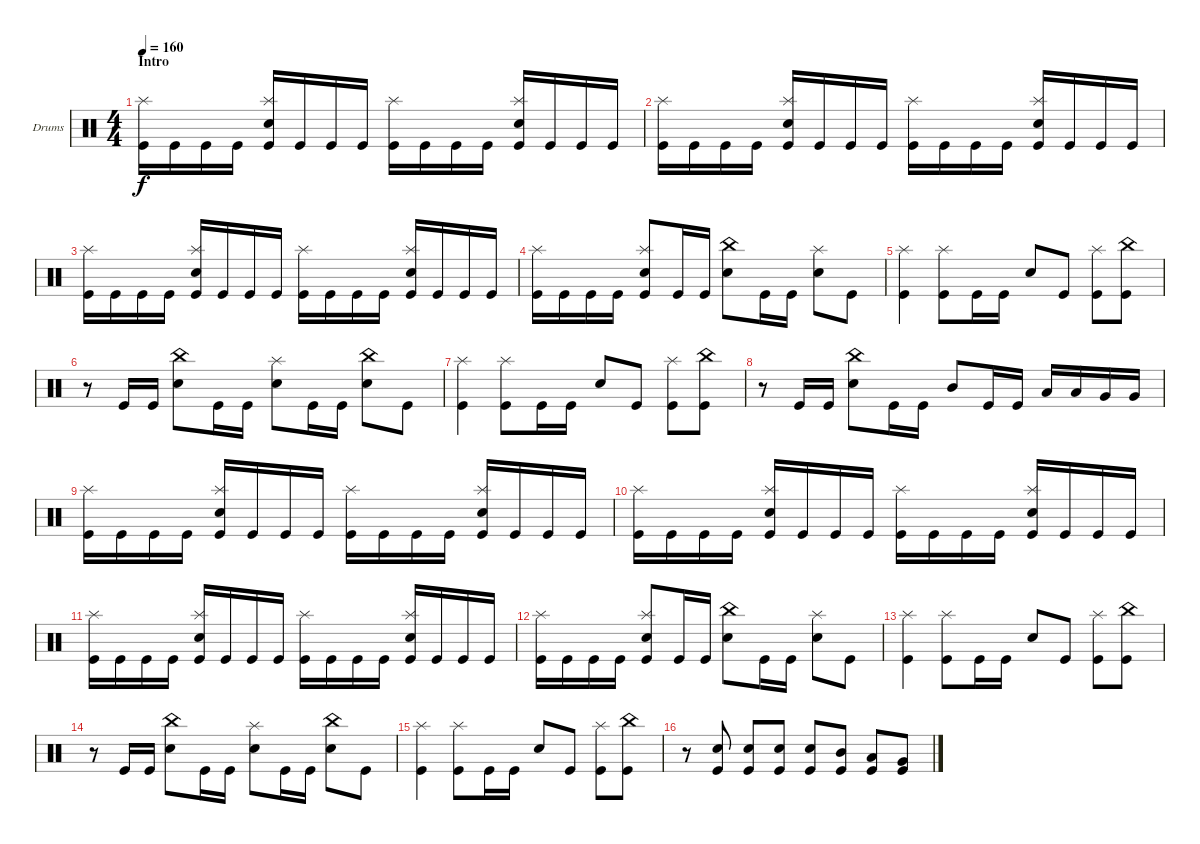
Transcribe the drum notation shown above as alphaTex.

\defaultSystemsLayout 4
\bracketExtendMode groupsimilarinstruments
\firstSystemTrackNameOrientation horizontal
\otherSystemsTrackNameOrientation horizontal
\track ("Drumkit" "Drums") {instrument percussion}
\staff {score}
\articulation defaults
\ts (4 4)
\section ("" "Intro")
\tempo 160
\clef neutral
\ks c
("Kick (hit)" "Splash (hit)").16{dy f} "Kick (hit)".16 "Kick (hit)".16 "Kick (hit)".16 ("Kick (hit)" "Splash (hit)" "Snare (hit) 2").16 "Kick (hit)".16 "Kick (hit)".16 "Kick (hit)".16 ("Kick (hit)" "Splash (hit)").16 "Kick (hit)".16 "Kick (hit)".16 "Kick (hit)".16 ("Kick (hit)" "Splash (hit)" "Snare (hit) 2").16 "Kick (hit)".16 "Kick (hit)".16 "Kick (hit)".16 |
("Kick (hit)" "Splash (hit)").16 "Kick (hit)".16 "Kick (hit)".16 "Kick (hit)".16 ("Kick (hit)" "Splash (hit)" "Snare (hit) 2").16 "Kick (hit)".16 "Kick (hit)".16 "Kick (hit)".16 ("Kick (hit)" "Splash (hit)").16 "Kick (hit)".16 "Kick (hit)".16 "Kick (hit)".16 ("Kick (hit)" "Splash (hit)" "Snare (hit) 2").16 "Kick (hit)".16 "Kick (hit)".16 "Kick (hit)".16 |
("Kick (hit)" "Splash (hit)").16 "Kick (hit)".16 "Kick (hit)".16 "Kick (hit)".16 ("Kick (hit)" "Splash (hit)" "Snare (hit) 2").16 "Kick (hit)".16 "Kick (hit)".16 "Kick (hit)".16 ("Kick (hit)" "Splash (hit)").16 "Kick (hit)".16 "Kick (hit)".16 "Kick (hit)".16 ("Kick (hit)" "Splash (hit)" "Snare (hit) 2").16 "Kick (hit)".16 "Kick (hit)".16 "Kick (hit)".16 |
("Kick (hit)" "Splash (hit)").16 "Kick (hit)".16 "Kick (hit)".16 "Kick (hit)".16 ("Kick (hit)" "Splash (hit)" "Snare (hit) 2").8 "Kick (hit)".16 "Kick (hit)".16 ("Snare (hit) 2" "China (hit)").8 "Kick (hit)".16 "Kick (hit)".16 ("Splash (hit)" "Snare (hit) 2").8 "Kick (hit)".8 |
("Splash (hit)" "Kick (hit)").4 ("Splash (hit)" "Kick (hit)").8 "Kick (hit)".16 "Kick (hit)".16 "Snare (hit) 2".8 "Kick (hit)".8 ("Kick (hit)" "Splash (hit)").8 ("Kick (hit)" "China (hit)").8 |
r.8 "Kick (hit)".16 "Kick (hit)".16 ("Snare (hit) 2" "China (hit)").8 "Kick (hit)".16 "Kick (hit)".16 ("Snare (hit) 2" "Splash (hit)").8 "Kick (hit)".16 "Kick (hit)".16 ("Snare (hit) 2" "China (hit)").8 "Kick (hit)".8 |
("Splash (hit)" "Kick (hit)").4 ("Splash (hit)" "Kick (hit)").8 "Kick (hit)".16 "Kick (hit)".16 "Snare (hit) 2".8 "Kick (hit)".8 ("Kick (hit)" "Splash (hit)").8 ("Kick (hit)" "China (hit)").8 |
r.8 "Kick (hit)".16 "Kick (hit)".16 ("Snare (hit) 2" "China (hit)").8 "Kick (hit)".16 "Kick (hit)".16 "Mid Tom (hit)".8 "Kick (hit)".16 "Kick (hit)".16 "Low Tom (hit)".16 "Low Tom (hit)".16 "Very Low Tom (hit)".16 "Very Low Tom (hit)".16 |
("Kick (hit)" "Splash (hit)").16 "Kick (hit)".16 "Kick (hit)".16 "Kick (hit)".16 ("Kick (hit)" "Splash (hit)" "Snare (hit) 2").16 "Kick (hit)".16 "Kick (hit)".16 "Kick (hit)".16 ("Kick (hit)" "Splash (hit)").16 "Kick (hit)".16 "Kick (hit)".16 "Kick (hit)".16 ("Kick (hit)" "Splash (hit)" "Snare (hit) 2").16 "Kick (hit)".16 "Kick (hit)".16 "Kick (hit)".16 |
("Kick (hit)" "Splash (hit)").16 "Kick (hit)".16 "Kick (hit)".16 "Kick (hit)".16 ("Kick (hit)" "Splash (hit)" "Snare (hit) 2").16 "Kick (hit)".16 "Kick (hit)".16 "Kick (hit)".16 ("Kick (hit)" "Splash (hit)").16 "Kick (hit)".16 "Kick (hit)".16 "Kick (hit)".16 ("Kick (hit)" "Splash (hit)" "Snare (hit) 2").16 "Kick (hit)".16 "Kick (hit)".16 "Kick (hit)".16 |
("Kick (hit)" "Splash (hit)").16 "Kick (hit)".16 "Kick (hit)".16 "Kick (hit)".16 ("Kick (hit)" "Splash (hit)" "Snare (hit) 2").16 "Kick (hit)".16 "Kick (hit)".16 "Kick (hit)".16 ("Kick (hit)" "Splash (hit)").16 "Kick (hit)".16 "Kick (hit)".16 "Kick (hit)".16 ("Kick (hit)" "Splash (hit)" "Snare (hit) 2").16 "Kick (hit)".16 "Kick (hit)".16 "Kick (hit)".16 |
("Kick (hit)" "Splash (hit)").16 "Kick (hit)".16 "Kick (hit)".16 "Kick (hit)".16 ("Kick (hit)" "Splash (hit)" "Snare (hit) 2").8 "Kick (hit)".16 "Kick (hit)".16 ("Snare (hit) 2" "China (hit)").8 "Kick (hit)".16 "Kick (hit)".16 ("Splash (hit)" "Snare (hit) 2").8 "Kick (hit)".8 |
("Splash (hit)" "Kick (hit)").4 ("Splash (hit)" "Kick (hit)").8 "Kick (hit)".16 "Kick (hit)".16 "Snare (hit) 2".8 "Kick (hit)".8 ("Kick (hit)" "Splash (hit)").8 ("Kick (hit)" "China (hit)").8 |
r.8 "Kick (hit)".16 "Kick (hit)".16 ("Snare (hit) 2" "China (hit)").8 "Kick (hit)".16 "Kick (hit)".16 ("Snare (hit) 2" "Splash (hit)").8 "Kick (hit)".16 "Kick (hit)".16 ("Snare (hit) 2" "China (hit)").8 "Kick (hit)".8 |
("Splash (hit)" "Kick (hit)").4 ("Splash (hit)" "Kick (hit)").8 "Kick (hit)".16 "Kick (hit)".16 "Snare (hit) 2".8 "Kick (hit)".8 ("Kick (hit)" "Splash (hit)").8 ("Kick (hit)" "China (hit)").8 |
r.8 ("Snare (hit) 2" "Kick (hit)").8 ("Snare (hit) 2" "Kick (hit)").8 ("Snare (hit) 2" "Kick (hit)").8 ("Snare (hit) 2" "Kick (hit)").8 ("Kick (hit)" "Mid Tom (hit)").8 ("Kick (hit)" "Low Tom (hit)").8 ("Kick (hit)" "Very Low Tom (hit)").8
